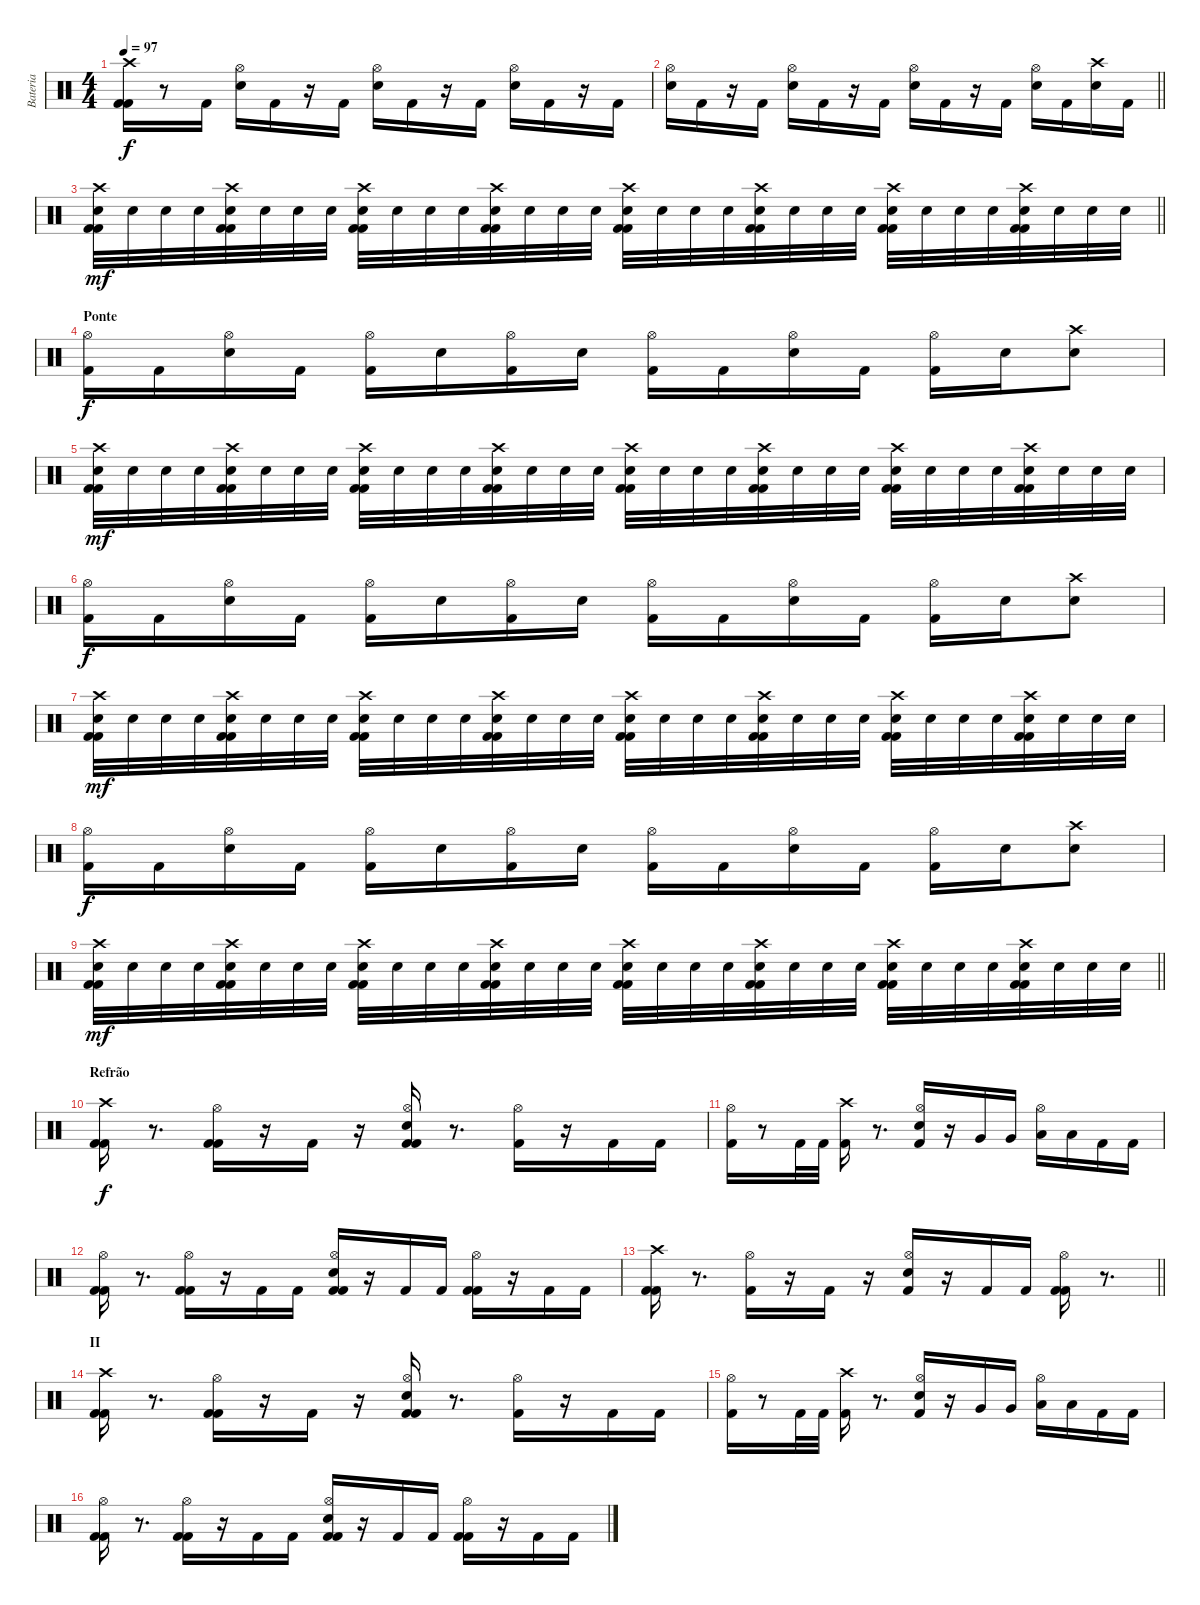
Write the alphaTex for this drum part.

\track ("Bateria" "Bateria") {instrument percussion}
\staff {score}
\articulation defaults
\ts (4 4)
\tempo 97
\clef neutral
\ks c
("Crash high (hit)" "Kick (hit) 2" "Kick (hit) 2").16{dy f} r.8 "Kick (hit) 2".16 ("Hi-Hat (open)" "Electric Snare (hit)").16 "Kick (hit) 2".16 r.16 "Kick (hit) 2".16 ("Hi-Hat (open)" "Electric Snare (hit)").16 "Kick (hit) 2".16 r.16 "Kick (hit) 2".16 ("Hi-Hat (open)" "Electric Snare (hit)").16 "Kick (hit) 2".16 r.16 "Kick (hit) 2".16 |
\barLineRight lightlight
("Hi-Hat (open)" "Electric Snare (hit)").16 "Kick (hit) 2".16 r.16 "Kick (hit) 2".16 ("Hi-Hat (open)" "Electric Snare (hit)").16 "Kick (hit) 2".16 r.16 "Kick (hit) 2".16 ("Hi-Hat (open)" "Electric Snare (hit)").16 "Kick (hit) 2".16 r.16 "Kick (hit) 2".16 ("Hi-Hat (open)" "Electric Snare (hit)").16 "Kick (hit) 2".16 ("Crash high (hit)" "Electric Snare (hit)").16 "Kick (hit) 2".16 |
\barLineRight lightlight
("Crash high (hit)" "Electric Snare (hit)" "Kick (hit) 2" "Kick (hit) 2").32{dy mf} "Electric Snare (hit)".32 "Electric Snare (hit)".32 "Electric Snare (hit)".32 ("Crash high (hit)" "Electric Snare (hit)" "Kick (hit) 2" "Kick (hit) 2").32 "Electric Snare (hit)".32 "Electric Snare (hit)".32 "Electric Snare (hit)".32 ("Crash high (hit)" "Electric Snare (hit)" "Kick (hit) 2" "Kick (hit) 2").32 "Electric Snare (hit)".32 "Electric Snare (hit)".32 "Electric Snare (hit)".32 ("Crash high (hit)" "Electric Snare (hit)" "Kick (hit) 2" "Kick (hit) 2").32 "Electric Snare (hit)".32 "Electric Snare (hit)".32 "Electric Snare (hit)".32 ("Crash high (hit)" "Electric Snare (hit)" "Kick (hit) 2" "Kick (hit) 2").32 "Electric Snare (hit)".32 "Electric Snare (hit)".32 "Electric Snare (hit)".32 ("Crash high (hit)" "Electric Snare (hit)" "Kick (hit) 2" "Kick (hit) 2").32 "Electric Snare (hit)".32 "Electric Snare (hit)".32 "Electric Snare (hit)".32 ("Crash high (hit)" "Electric Snare (hit)" "Kick (hit) 2" "Kick (hit) 2").32 "Electric Snare (hit)".32 "Electric Snare (hit)".32 "Electric Snare (hit)".32 ("Crash high (hit)" "Electric Snare (hit)" "Kick (hit) 2" "Kick (hit) 2").32 "Electric Snare (hit)".32 "Electric Snare (hit)".32 "Electric Snare (hit)".32 |
\section ("" "Ponte")
("Hi-Hat (open)" "Kick (hit) 2").16{dy f} "Kick (hit) 2".16 ("Hi-Hat (open)" "Electric Snare (hit)").16 "Kick (hit) 2".16 ("Hi-Hat (open)" "Kick (hit) 2").16 "Electric Snare (hit)".16 ("Hi-Hat (open)" "Kick (hit) 2").16 "Electric Snare (hit)".16 ("Hi-Hat (open)" "Kick (hit) 2").16 "Kick (hit) 2".16 ("Hi-Hat (open)" "Electric Snare (hit)").16 "Kick (hit) 2".16 ("Hi-Hat (open)" "Kick (hit) 2").16 "Electric Snare (hit)".16 ("Crash high (hit)" "Electric Snare (hit)").8 |
("Crash high (hit)" "Electric Snare (hit)" "Kick (hit) 2" "Kick (hit) 2").32{dy mf} "Electric Snare (hit)".32 "Electric Snare (hit)".32 "Electric Snare (hit)".32 ("Crash high (hit)" "Electric Snare (hit)" "Kick (hit) 2" "Kick (hit) 2").32 "Electric Snare (hit)".32 "Electric Snare (hit)".32 "Electric Snare (hit)".32 ("Crash high (hit)" "Electric Snare (hit)" "Kick (hit) 2" "Kick (hit) 2").32 "Electric Snare (hit)".32 "Electric Snare (hit)".32 "Electric Snare (hit)".32 ("Crash high (hit)" "Electric Snare (hit)" "Kick (hit) 2" "Kick (hit) 2").32 "Electric Snare (hit)".32 "Electric Snare (hit)".32 "Electric Snare (hit)".32 ("Crash high (hit)" "Electric Snare (hit)" "Kick (hit) 2" "Kick (hit) 2").32 "Electric Snare (hit)".32 "Electric Snare (hit)".32 "Electric Snare (hit)".32 ("Crash high (hit)" "Electric Snare (hit)" "Kick (hit) 2" "Kick (hit) 2").32 "Electric Snare (hit)".32 "Electric Snare (hit)".32 "Electric Snare (hit)".32 ("Crash high (hit)" "Electric Snare (hit)" "Kick (hit) 2" "Kick (hit) 2").32 "Electric Snare (hit)".32 "Electric Snare (hit)".32 "Electric Snare (hit)".32 ("Crash high (hit)" "Electric Snare (hit)" "Kick (hit) 2" "Kick (hit) 2").32 "Electric Snare (hit)".32 "Electric Snare (hit)".32 "Electric Snare (hit)".32 |
("Hi-Hat (open)" "Kick (hit) 2").16{dy f} "Kick (hit) 2".16 ("Hi-Hat (open)" "Electric Snare (hit)").16 "Kick (hit) 2".16 ("Hi-Hat (open)" "Kick (hit) 2").16 "Electric Snare (hit)".16 ("Hi-Hat (open)" "Kick (hit) 2").16 "Electric Snare (hit)".16 ("Hi-Hat (open)" "Kick (hit) 2").16 "Kick (hit) 2".16 ("Hi-Hat (open)" "Electric Snare (hit)").16 "Kick (hit) 2".16 ("Hi-Hat (open)" "Kick (hit) 2").16 "Electric Snare (hit)".16 ("Crash high (hit)" "Electric Snare (hit)").8 |
("Crash high (hit)" "Electric Snare (hit)" "Kick (hit) 2" "Kick (hit) 2").32{dy mf} "Electric Snare (hit)".32 "Electric Snare (hit)".32 "Electric Snare (hit)".32 ("Crash high (hit)" "Electric Snare (hit)" "Kick (hit) 2" "Kick (hit) 2").32 "Electric Snare (hit)".32 "Electric Snare (hit)".32 "Electric Snare (hit)".32 ("Crash high (hit)" "Electric Snare (hit)" "Kick (hit) 2" "Kick (hit) 2").32 "Electric Snare (hit)".32 "Electric Snare (hit)".32 "Electric Snare (hit)".32 ("Crash high (hit)" "Electric Snare (hit)" "Kick (hit) 2" "Kick (hit) 2").32 "Electric Snare (hit)".32 "Electric Snare (hit)".32 "Electric Snare (hit)".32 ("Crash high (hit)" "Electric Snare (hit)" "Kick (hit) 2" "Kick (hit) 2").32 "Electric Snare (hit)".32 "Electric Snare (hit)".32 "Electric Snare (hit)".32 ("Crash high (hit)" "Electric Snare (hit)" "Kick (hit) 2" "Kick (hit) 2").32 "Electric Snare (hit)".32 "Electric Snare (hit)".32 "Electric Snare (hit)".32 ("Crash high (hit)" "Electric Snare (hit)" "Kick (hit) 2" "Kick (hit) 2").32 "Electric Snare (hit)".32 "Electric Snare (hit)".32 "Electric Snare (hit)".32 ("Crash high (hit)" "Electric Snare (hit)" "Kick (hit) 2" "Kick (hit) 2").32 "Electric Snare (hit)".32 "Electric Snare (hit)".32 "Electric Snare (hit)".32 |
("Hi-Hat (open)" "Kick (hit) 2").16{dy f} "Kick (hit) 2".16 ("Hi-Hat (open)" "Electric Snare (hit)").16 "Kick (hit) 2".16 ("Hi-Hat (open)" "Kick (hit) 2").16 "Electric Snare (hit)".16 ("Hi-Hat (open)" "Kick (hit) 2").16 "Electric Snare (hit)".16 ("Hi-Hat (open)" "Kick (hit) 2").16 "Kick (hit) 2".16 ("Hi-Hat (open)" "Electric Snare (hit)").16 "Kick (hit) 2".16 ("Hi-Hat (open)" "Kick (hit) 2").16 "Electric Snare (hit)".16 ("Crash high (hit)" "Electric Snare (hit)").8 |
\barLineRight lightlight
("Crash high (hit)" "Electric Snare (hit)" "Kick (hit) 2" "Kick (hit) 2").32{dy mf} "Electric Snare (hit)".32 "Electric Snare (hit)".32 "Electric Snare (hit)".32 ("Crash high (hit)" "Electric Snare (hit)" "Kick (hit) 2" "Kick (hit) 2").32 "Electric Snare (hit)".32 "Electric Snare (hit)".32 "Electric Snare (hit)".32 ("Crash high (hit)" "Electric Snare (hit)" "Kick (hit) 2" "Kick (hit) 2").32 "Electric Snare (hit)".32 "Electric Snare (hit)".32 "Electric Snare (hit)".32 ("Crash high (hit)" "Electric Snare (hit)" "Kick (hit) 2" "Kick (hit) 2").32 "Electric Snare (hit)".32 "Electric Snare (hit)".32 "Electric Snare (hit)".32 ("Crash high (hit)" "Electric Snare (hit)" "Kick (hit) 2" "Kick (hit) 2").32 "Electric Snare (hit)".32 "Electric Snare (hit)".32 "Electric Snare (hit)".32 ("Crash high (hit)" "Electric Snare (hit)" "Kick (hit) 2" "Kick (hit) 2").32 "Electric Snare (hit)".32 "Electric Snare (hit)".32 "Electric Snare (hit)".32 ("Crash high (hit)" "Electric Snare (hit)" "Kick (hit) 2" "Kick (hit) 2").32 "Electric Snare (hit)".32 "Electric Snare (hit)".32 "Electric Snare (hit)".32 ("Crash high (hit)" "Electric Snare (hit)" "Kick (hit) 2" "Kick (hit) 2").32 "Electric Snare (hit)".32 "Electric Snare (hit)".32 "Electric Snare (hit)".32 |
\section ("" "Refrão")
("Crash high (hit)" "Kick (hit) 2" "Kick (hit) 2").16{dy f} r.8{d} ("Hi-Hat (open)" "Kick (hit) 2" "Kick (hit) 2").16 r.16 "Kick (hit) 2".16 r.16 ("Hi-Hat (open)" "Electric Snare (hit)" "Kick (hit) 2" "Kick (hit) 2").16 r.8{d} ("Hi-Hat (open)" "Kick (hit) 2").16 r.16 "Kick (hit) 2".16 "Kick (hit) 2".16 |
("Hi-Hat (open)" "Kick (hit) 2").16 r.8 "Kick (hit) 2".32 "Kick (hit) 2".32 ("Crash high (hit)" "Kick (hit) 2").16 r.8{d} ("Hi-Hat (open)" "Electric Snare (hit)" "Kick (hit) 2").16 r.16 "Very Low Tom (hit)".16 "Very Low Tom (hit)".16 ("Hi-Hat (open)" "Low Floor Tom (hit)").16 "Low Floor Tom (hit)".16 "Kick (hit) 2".16 "Kick (hit) 2".16 |
("Hi-Hat (open)" "Kick (hit) 2" "Kick (hit) 2").16 r.8{d} ("Hi-Hat (open)" "Kick (hit) 2" "Kick (hit) 2").16 r.16 "Kick (hit) 2".16 "Kick (hit) 2".16 ("Hi-Hat (open)" "Electric Snare (hit)" "Kick (hit) 2" "Kick (hit) 2").16 r.16 "Kick (hit) 2".16 "Kick (hit) 2".16 ("Hi-Hat (open)" "Kick (hit) 2" "Kick (hit) 2").16 r.16 "Kick (hit) 2".16 "Kick (hit) 2".16 |
\barLineRight lightlight
("Crash high (hit)" "Kick (hit) 2" "Kick (hit) 2").16 r.8{d} ("Hi-Hat (open)" "Kick (hit) 2").16 r.16 "Kick (hit) 2".16 r.16 ("Hi-Hat (open)" "Electric Snare (hit)" "Kick (hit) 2").16 r.16 "Kick (hit) 2".16 "Kick (hit) 2".16 ("Hi-Hat (open)" "Kick (hit) 2" "Kick (hit) 2").16 r.8{d} |
\section ("" "II")
("Crash high (hit)" "Kick (hit) 2" "Kick (hit) 2").16 r.8{d} ("Hi-Hat (open)" "Kick (hit) 2" "Kick (hit) 2").16 r.16 "Kick (hit) 2".16 r.16 ("Hi-Hat (open)" "Electric Snare (hit)" "Kick (hit) 2" "Kick (hit) 2").16 r.8{d} ("Hi-Hat (open)" "Kick (hit) 2").16 r.16 "Kick (hit) 2".16 "Kick (hit) 2".16 |
("Hi-Hat (open)" "Kick (hit) 2").16 r.8 "Kick (hit) 2".32 "Kick (hit) 2".32 ("Crash high (hit)" "Kick (hit) 2").16 r.8{d} ("Hi-Hat (open)" "Electric Snare (hit)" "Kick (hit) 2").16 r.16 "Very Low Tom (hit)".16 "Very Low Tom (hit)".16 ("Hi-Hat (open)" "Low Floor Tom (hit)").16 "Low Floor Tom (hit)".16 "Kick (hit) 2".16 "Kick (hit) 2".16 |
("Hi-Hat (open)" "Kick (hit) 2" "Kick (hit) 2").16 r.8{d} ("Hi-Hat (open)" "Kick (hit) 2" "Kick (hit) 2").16 r.16 "Kick (hit) 2".16 "Kick (hit) 2".16 ("Hi-Hat (open)" "Electric Snare (hit)" "Kick (hit) 2" "Kick (hit) 2").16 r.16 "Kick (hit) 2".16 "Kick (hit) 2".16 ("Hi-Hat (open)" "Kick (hit) 2" "Kick (hit) 2").16 r.16 "Kick (hit) 2".16 "Kick (hit) 2".16
